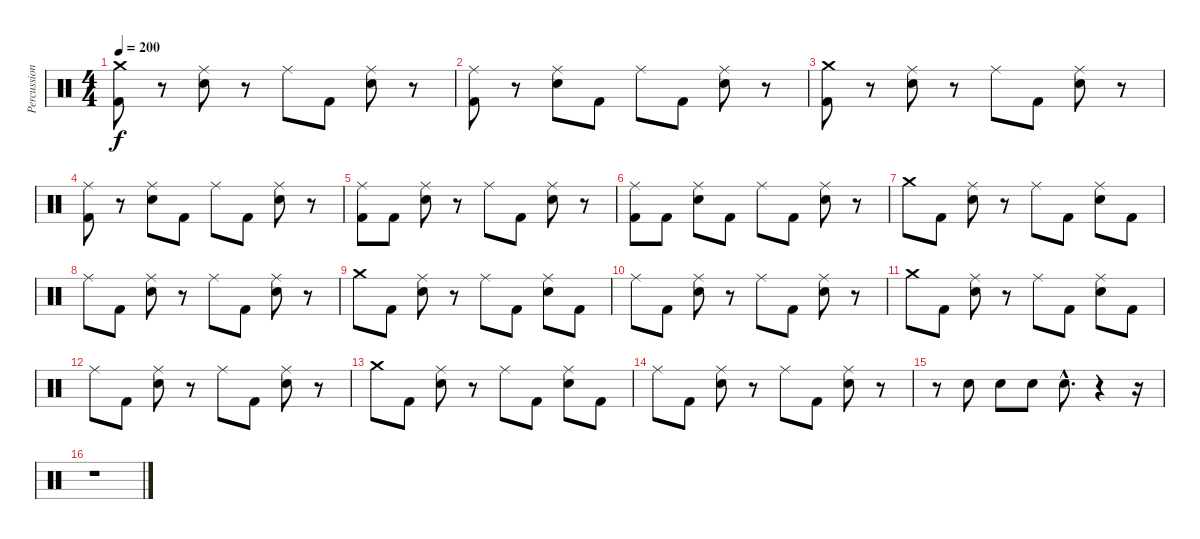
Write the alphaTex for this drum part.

\track ("Percussion" "Percussion") {instrument percussion}
\staff {score}
\articulation defaults
\ts (4 4)
\tempo 200
\clef neutral
\ks c
("Crash medium (hit)" "Kick (hit) 2").8{dy f} r.8 ("Ride (middle)" "Snare (hit) 2").8 r.8 "Ride (middle)".8 "Kick (hit) 2".8 ("Ride (middle)" "Snare (hit) 2").8 r.8 |
("Ride (middle)" "Kick (hit) 2").8 r.8 ("Ride (middle)" "Snare (hit) 2").8 "Kick (hit) 2".8 "Ride (middle)".8 "Kick (hit) 2".8 ("Ride (middle)" "Snare (hit) 2").8 r.8 |
("Crash medium (hit)" "Kick (hit) 2").8 r.8 ("Ride (middle)" "Snare (hit) 2").8 r.8 "Ride (middle)".8 "Kick (hit) 2".8 ("Ride (middle)" "Snare (hit) 2").8 r.8 |
("Ride (middle)" "Kick (hit) 2").8 r.8 ("Ride (middle)" "Snare (hit) 2").8 "Kick (hit) 2".8 "Ride (middle)".8 "Kick (hit) 2".8 ("Ride (middle)" "Snare (hit) 2").8 r.8 |
("Ride (middle)" "Kick (hit) 2").8 "Kick (hit) 2".8 ("Ride (middle)" "Snare (hit) 2").8 r.8 "Ride (middle)".8 "Kick (hit) 2".8 ("Ride (middle)" "Snare (hit) 2").8 r.8 |
("Ride (middle)" "Kick (hit) 2").8 "Kick (hit) 2".8 ("Ride (middle)" "Snare (hit) 2").8 "Kick (hit) 2".8 "Ride (middle)".8 "Kick (hit) 2".8 ("Ride (middle)" "Snare (hit) 2").8 r.8 |
"Crash medium (hit)".8 "Kick (hit) 2".8 ("Ride (middle)" "Snare (hit) 2").8 r.8 "Ride (middle)".8 "Kick (hit) 2".8 ("Ride (middle)" "Snare (hit) 2").8 "Kick (hit) 2".8 |
"Ride (middle)".8 "Kick (hit) 2".8 ("Ride (middle)" "Snare (hit) 2").8 r.8 "Ride (middle)".8 "Kick (hit) 2".8 ("Ride (middle)" "Snare (hit) 2").8 r.8 |
"Crash medium (hit)".8 "Kick (hit) 2".8 ("Ride (middle)" "Snare (hit) 2").8 r.8 "Ride (middle)".8 "Kick (hit) 2".8 ("Ride (middle)" "Snare (hit) 2").8 "Kick (hit) 2".8 |
"Ride (middle)".8 "Kick (hit) 2".8 ("Ride (middle)" "Snare (hit) 2").8 r.8 "Ride (middle)".8 "Kick (hit) 2".8 ("Ride (middle)" "Snare (hit) 2").8 r.8 |
"Crash medium (hit)".8 "Kick (hit) 2".8 ("Ride (middle)" "Snare (hit) 2").8 r.8 "Ride (middle)".8 "Kick (hit) 2".8 ("Ride (middle)" "Snare (hit) 2").8 "Kick (hit) 2".8 |
"Ride (middle)".8 "Kick (hit) 2".8 ("Ride (middle)" "Snare (hit) 2").8 r.8 "Ride (middle)".8 "Kick (hit) 2".8 ("Ride (middle)" "Snare (hit) 2").8 r.8 |
"Crash medium (hit)".8 "Kick (hit) 2".8 ("Ride (middle)" "Snare (hit) 2").8 r.8 "Ride (middle)".8 "Kick (hit) 2".8 ("Ride (middle)" "Snare (hit) 2").8 "Kick (hit) 2".8 |
"Ride (middle)".8 "Kick (hit) 2".8 ("Ride (middle)" "Snare (hit) 2").8 r.8 "Ride (middle)".8 "Kick (hit) 2".8 ("Ride (middle)" "Snare (hit) 2").8 r.8 |
r.8 "Snare (hit) 2".8 "Snare (hit) 2".8 "Snare (hit) 2".8 "Snare (hit) 2"{hac}.8{d} r.4 r.16 |
r.1
